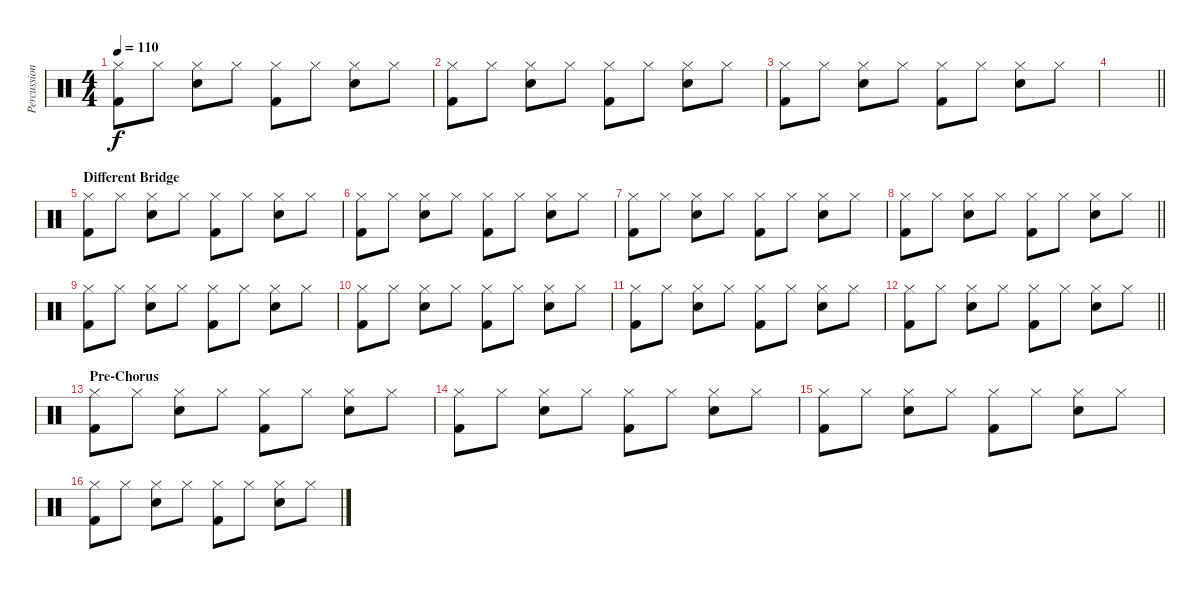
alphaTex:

\track ("Percussion" "Percussion") {instrument percussion}
\staff {score}
\articulation defaults
\ts (4 4)
\tempo 110
\clef neutral
\ks c
("Hi-Hat (closed)" "Kick (hit) 2").8{dy f} "Hi-Hat (closed)".8 ("Hi-Hat (closed)" "Electric Snare (hit)").8 "Hi-Hat (closed)".8 ("Hi-Hat (closed)" "Kick (hit) 2").8 "Hi-Hat (closed)".8 ("Hi-Hat (closed)" "Electric Snare (hit)").8 "Hi-Hat (closed)".8 |
("Hi-Hat (closed)" "Kick (hit) 2").8 "Hi-Hat (closed)".8 ("Hi-Hat (closed)" "Electric Snare (hit)").8 "Hi-Hat (closed)".8 ("Hi-Hat (closed)" "Kick (hit) 2").8 "Hi-Hat (closed)".8 ("Hi-Hat (closed)" "Electric Snare (hit)").8 "Hi-Hat (closed)".8 |
("Hi-Hat (closed)" "Kick (hit) 2").8 "Hi-Hat (closed)".8 ("Hi-Hat (closed)" "Electric Snare (hit)").8 "Hi-Hat (closed)".8 ("Hi-Hat (closed)" "Kick (hit) 2").8 "Hi-Hat (closed)".8 ("Hi-Hat (closed)" "Electric Snare (hit)").8 "Hi-Hat (closed)".8 |
\barLineRight lightlight
|
\section ("" "Different Bridge")
("Hi-Hat (closed)" "Kick (hit) 2").8 "Hi-Hat (closed)".8 ("Hi-Hat (closed)" "Electric Snare (hit)").8 "Hi-Hat (closed)".8 ("Hi-Hat (closed)" "Kick (hit) 2").8 "Hi-Hat (closed)".8 ("Hi-Hat (closed)" "Electric Snare (hit)").8 "Hi-Hat (closed)".8 |
("Hi-Hat (closed)" "Kick (hit) 2").8 "Hi-Hat (closed)".8 ("Hi-Hat (closed)" "Electric Snare (hit)").8 "Hi-Hat (closed)".8 ("Hi-Hat (closed)" "Kick (hit) 2").8 "Hi-Hat (closed)".8 ("Hi-Hat (closed)" "Electric Snare (hit)").8 "Hi-Hat (closed)".8 |
("Hi-Hat (closed)" "Kick (hit) 2").8 "Hi-Hat (closed)".8 ("Hi-Hat (closed)" "Electric Snare (hit)").8 "Hi-Hat (closed)".8 ("Hi-Hat (closed)" "Kick (hit) 2").8 "Hi-Hat (closed)".8 ("Hi-Hat (closed)" "Electric Snare (hit)").8 "Hi-Hat (closed)".8 |
\barLineRight lightlight
("Hi-Hat (closed)" "Kick (hit) 2").8 "Hi-Hat (closed)".8 ("Hi-Hat (closed)" "Electric Snare (hit)").8 "Hi-Hat (closed)".8 ("Hi-Hat (closed)" "Kick (hit) 2").8 "Hi-Hat (closed)".8 ("Hi-Hat (closed)" "Electric Snare (hit)").8 "Hi-Hat (closed)".8 |
("Hi-Hat (closed)" "Kick (hit) 2").8 "Hi-Hat (closed)".8 ("Hi-Hat (closed)" "Electric Snare (hit)").8 "Hi-Hat (closed)".8 ("Hi-Hat (closed)" "Kick (hit) 2").8 "Hi-Hat (closed)".8 ("Hi-Hat (closed)" "Electric Snare (hit)").8 "Hi-Hat (closed)".8 |
("Hi-Hat (closed)" "Kick (hit) 2").8 "Hi-Hat (closed)".8 ("Hi-Hat (closed)" "Electric Snare (hit)").8 "Hi-Hat (closed)".8 ("Hi-Hat (closed)" "Kick (hit) 2").8 "Hi-Hat (closed)".8 ("Hi-Hat (closed)" "Electric Snare (hit)").8 "Hi-Hat (closed)".8 |
("Hi-Hat (closed)" "Kick (hit) 2").8 "Hi-Hat (closed)".8 ("Hi-Hat (closed)" "Electric Snare (hit)").8 "Hi-Hat (closed)".8 ("Hi-Hat (closed)" "Kick (hit) 2").8 "Hi-Hat (closed)".8 ("Hi-Hat (closed)" "Electric Snare (hit)").8 "Hi-Hat (closed)".8 |
\barLineRight lightlight
("Hi-Hat (closed)" "Kick (hit) 2").8 "Hi-Hat (closed)".8 ("Hi-Hat (closed)" "Electric Snare (hit)").8 "Hi-Hat (closed)".8 ("Hi-Hat (closed)" "Kick (hit) 2").8 "Hi-Hat (closed)".8 ("Hi-Hat (closed)" "Electric Snare (hit)").8 "Hi-Hat (closed)".8 |
\section ("" "Pre-Chorus")
("Hi-Hat (closed)" "Kick (hit) 2").8 "Hi-Hat (closed)".8 ("Hi-Hat (closed)" "Electric Snare (hit)").8 "Hi-Hat (closed)".8 ("Hi-Hat (closed)" "Kick (hit) 2").8 "Hi-Hat (closed)".8 ("Hi-Hat (closed)" "Electric Snare (hit)").8 "Hi-Hat (closed)".8 |
("Hi-Hat (closed)" "Kick (hit) 2").8 "Hi-Hat (closed)".8 ("Hi-Hat (closed)" "Electric Snare (hit)").8 "Hi-Hat (closed)".8 ("Hi-Hat (closed)" "Kick (hit) 2").8 "Hi-Hat (closed)".8 ("Hi-Hat (closed)" "Electric Snare (hit)").8 "Hi-Hat (closed)".8 |
("Hi-Hat (closed)" "Kick (hit) 2").8 "Hi-Hat (closed)".8 ("Hi-Hat (closed)" "Electric Snare (hit)").8 "Hi-Hat (closed)".8 ("Hi-Hat (closed)" "Kick (hit) 2").8 "Hi-Hat (closed)".8 ("Hi-Hat (closed)" "Electric Snare (hit)").8 "Hi-Hat (closed)".8 |
("Hi-Hat (closed)" "Kick (hit) 2").8 "Hi-Hat (closed)".8 ("Hi-Hat (closed)" "Electric Snare (hit)").8 "Hi-Hat (closed)".8 ("Hi-Hat (closed)" "Kick (hit) 2").8 "Hi-Hat (closed)".8 ("Hi-Hat (closed)" "Electric Snare (hit)").8 "Hi-Hat (closed)".8
